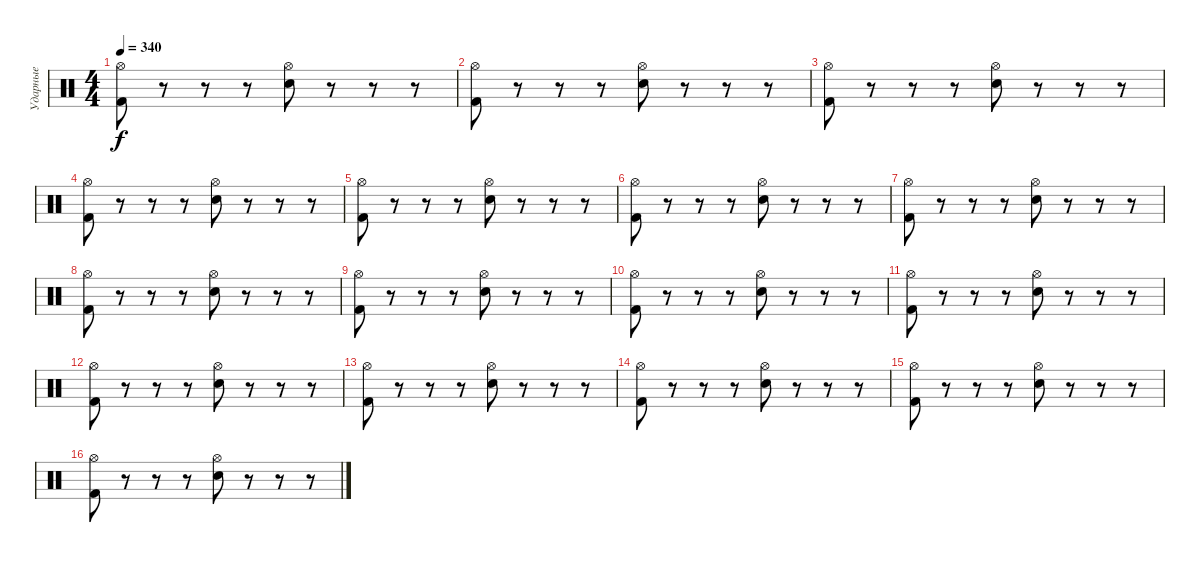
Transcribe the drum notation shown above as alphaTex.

\track ("Ударные" "Ударные") {instrument percussion}
\staff {score}
\articulation defaults
\ts (4 4)
\tempo 340
\clef neutral
\ks c
("Kick (hit) 2" "Hi-Hat (open)").8{dy f} r.8 r.8 r.8 ("Electric Snare (hit)" "Hi-Hat (open)").8 r.8 r.8 r.8 |
("Kick (hit) 2" "Hi-Hat (open)").8 r.8 r.8 r.8 ("Electric Snare (hit)" "Hi-Hat (open)").8 r.8 r.8 r.8 |
("Kick (hit) 2" "Hi-Hat (open)").8 r.8 r.8 r.8 ("Electric Snare (hit)" "Hi-Hat (open)").8 r.8 r.8 r.8 |
("Kick (hit) 2" "Hi-Hat (open)").8 r.8 r.8 r.8 ("Electric Snare (hit)" "Hi-Hat (open)").8 r.8 r.8 r.8 |
("Kick (hit) 2" "Hi-Hat (open)").8 r.8 r.8 r.8 ("Electric Snare (hit)" "Hi-Hat (open)").8 r.8 r.8 r.8 |
("Kick (hit) 2" "Hi-Hat (open)").8 r.8 r.8 r.8 ("Electric Snare (hit)" "Hi-Hat (open)").8 r.8 r.8 r.8 |
("Kick (hit) 2" "Hi-Hat (open)").8 r.8 r.8 r.8 ("Electric Snare (hit)" "Hi-Hat (open)").8 r.8 r.8 r.8 |
("Kick (hit) 2" "Hi-Hat (open)").8 r.8 r.8 r.8 ("Electric Snare (hit)" "Hi-Hat (open)").8 r.8 r.8 r.8 |
("Kick (hit) 2" "Hi-Hat (open)").8 r.8 r.8 r.8 ("Electric Snare (hit)" "Hi-Hat (open)").8 r.8 r.8 r.8 |
("Kick (hit) 2" "Hi-Hat (open)").8 r.8 r.8 r.8 ("Electric Snare (hit)" "Hi-Hat (open)").8 r.8 r.8 r.8 |
("Kick (hit) 2" "Hi-Hat (open)").8 r.8 r.8 r.8 ("Electric Snare (hit)" "Hi-Hat (open)").8 r.8 r.8 r.8 |
("Kick (hit) 2" "Hi-Hat (open)").8 r.8 r.8 r.8 ("Electric Snare (hit)" "Hi-Hat (open)").8 r.8 r.8 r.8 |
("Kick (hit) 2" "Hi-Hat (open)").8 r.8 r.8 r.8 ("Electric Snare (hit)" "Hi-Hat (open)").8 r.8 r.8 r.8 |
("Kick (hit) 2" "Hi-Hat (open)").8 r.8 r.8 r.8 ("Electric Snare (hit)" "Hi-Hat (open)").8 r.8 r.8 r.8 |
("Kick (hit) 2" "Hi-Hat (open)").8 r.8 r.8 r.8 ("Electric Snare (hit)" "Hi-Hat (open)").8 r.8 r.8 r.8 |
("Kick (hit) 2" "Hi-Hat (open)").8 r.8 r.8 r.8 ("Electric Snare (hit)" "Hi-Hat (open)").8 r.8 r.8 r.8
